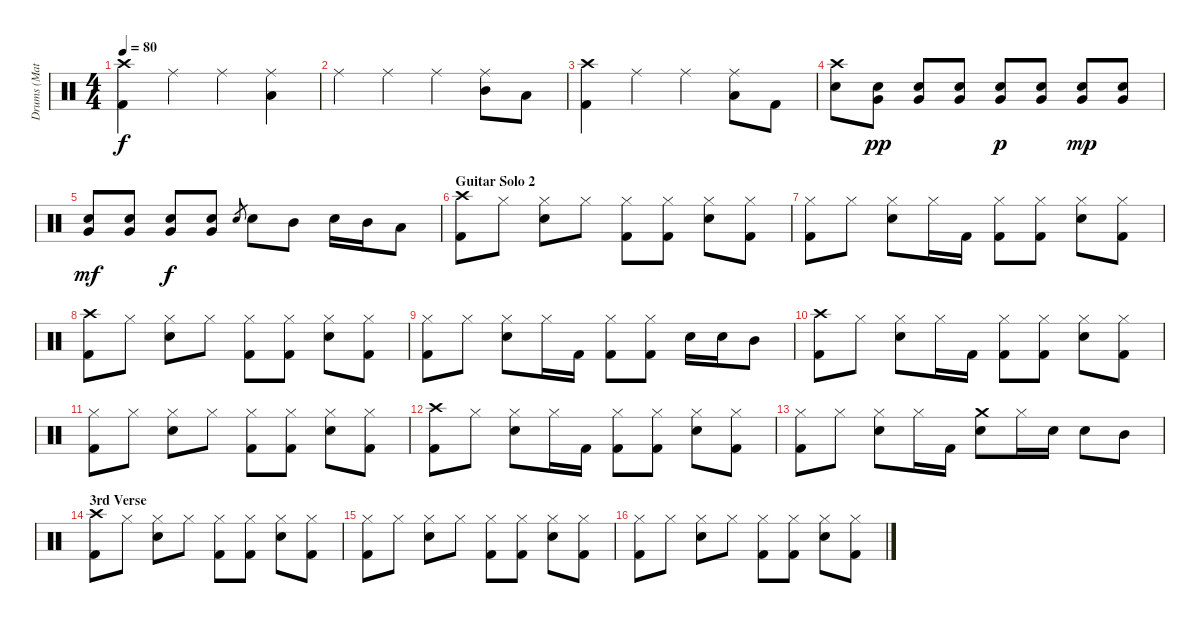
\track ("Drums (Matt)" "Drums (Mat") {instrument percussion}
\staff {score}
\articulation defaults
\ts (4 4)
\tempo 80
\clef neutral
\ks c
("Crash high (hit)" "Kick (hit) 2").4{dy f} "Ride (middle)".4 "Ride (middle)".4 ("Ride (middle)" "Low Tom (hit)").4 |
"Ride (middle)".4 "Ride (middle)".4 "Ride (middle)".4 ("Ride (middle)" "Mid Tom (hit)").8 "Low Tom (hit)".8 |
("Crash high (hit)" "Kick (hit) 2").4 "Ride (middle)".4 "Ride (middle)".4 ("Ride (middle)" "Low Tom (hit)").8 "Kick (hit) 2".8 |
("Crash high (hit)" "Snare (hit) 2").8 ("Very Low Tom (hit)" "Snare (hit) 2").8{dy pp} ("Very Low Tom (hit)" "Snare (hit) 2").8 ("Very Low Tom (hit)" "Snare (hit) 2").8 ("Very Low Tom (hit)" "Snare (hit) 2").8{dy p} ("Very Low Tom (hit)" "Snare (hit) 2").8 ("Very Low Tom (hit)" "Snare (hit) 2").8{dy mp} ("Very Low Tom (hit)" "Snare (hit) 2").8 |
("Very Low Tom (hit)" "Snare (hit) 2").8{dy mf} ("Very Low Tom (hit)" "Snare (hit) 2").8 ("Very Low Tom (hit)" "Snare (hit) 2").8{dy f} ("Very Low Tom (hit)" "Snare (hit) 2").8 "Snare (hit) 2".8{gr} "Snare (hit) 2".8 "Mid Tom (hit)".8 "Snare (hit) 2".16 "Mid Tom (hit)".16 "Low Tom (hit)".8 |
\section ("" "Guitar Solo 2")
("Crash high (hit)" "Kick (hit) 2").8 "Hi-Hat (closed)".8 ("Hi-Hat (closed)" "Snare (hit) 2").8 "Hi-Hat (closed)".8 ("Hi-Hat (closed)" "Kick (hit) 2").8 ("Hi-Hat (closed)" "Kick (hit) 2").8 ("Hi-Hat (closed)" "Snare (hit) 2").8 ("Hi-Hat (closed)" "Kick (hit) 2").8 |
("Hi-Hat (closed)" "Kick (hit) 2").8 "Hi-Hat (closed)".8 ("Hi-Hat (closed)" "Snare (hit) 2").8 "Hi-Hat (closed)".16 "Kick (hit) 2".16 ("Hi-Hat (closed)" "Kick (hit) 2").8 ("Hi-Hat (closed)" "Kick (hit) 2").8 ("Hi-Hat (closed)" "Snare (hit) 2").8 ("Hi-Hat (closed)" "Kick (hit) 2").8 |
("Crash high (hit)" "Kick (hit) 2").8 "Hi-Hat (closed)".8 ("Hi-Hat (closed)" "Snare (hit) 2").8 "Hi-Hat (closed)".8 ("Hi-Hat (closed)" "Kick (hit) 2").8 ("Hi-Hat (closed)" "Kick (hit) 2").8 ("Hi-Hat (closed)" "Snare (hit) 2").8 ("Hi-Hat (closed)" "Kick (hit) 2").8 |
("Hi-Hat (closed)" "Kick (hit) 2").8 "Hi-Hat (closed)".8 ("Hi-Hat (closed)" "Snare (hit) 2").8 "Hi-Hat (closed)".16 "Kick (hit) 2".16 ("Hi-Hat (closed)" "Kick (hit) 2").8 ("Hi-Hat (closed)" "Kick (hit) 2").8 "Snare (hit) 2".16 "Snare (hit) 2".16 "Mid Tom (hit)".8 |
("Crash high (hit)" "Kick (hit) 2").8 "Hi-Hat (closed)".8 ("Hi-Hat (closed)" "Snare (hit) 2").8 "Hi-Hat (closed)".16 "Kick (hit) 2".16 ("Hi-Hat (closed)" "Kick (hit) 2").8 ("Hi-Hat (closed)" "Kick (hit) 2").8 ("Hi-Hat (closed)" "Snare (hit) 2").8 ("Hi-Hat (closed)" "Kick (hit) 2").8 |
("Hi-Hat (closed)" "Kick (hit) 2").8 "Hi-Hat (closed)".8 ("Hi-Hat (closed)" "Snare (hit) 2").8 "Hi-Hat (closed)".8 ("Hi-Hat (closed)" "Kick (hit) 2").8 ("Hi-Hat (closed)" "Kick (hit) 2").8 ("Hi-Hat (closed)" "Snare (hit) 2").8 ("Hi-Hat (closed)" "Kick (hit) 2").8 |
("Crash high (hit)" "Kick (hit) 2").8 "Hi-Hat (closed)".8 ("Hi-Hat (closed)" "Snare (hit) 2").8 "Hi-Hat (closed)".16 "Kick (hit) 2".16 ("Hi-Hat (closed)" "Kick (hit) 2").8 ("Hi-Hat (closed)" "Kick (hit) 2").8 ("Hi-Hat (closed)" "Snare (hit) 2").8 ("Hi-Hat (closed)" "Kick (hit) 2").8 |
("Hi-Hat (closed)" "Kick (hit) 2").8 "Hi-Hat (closed)".8 ("Hi-Hat (closed)" "Snare (hit) 2").8 "Hi-Hat (closed)".16 "Kick (hit) 2".16 ("Crash medium (hit)" "Snare (hit) 2").8 "Hi-Hat (closed)".16 "Snare (hit) 2".16 "Snare (hit) 2".8 "Mid Tom (hit)".8 |
\section ("" "3rd Verse")
("Crash high (hit)" "Kick (hit) 2").8 "Hi-Hat (closed)".8 ("Hi-Hat (closed)" "Snare (hit) 2").8 "Hi-Hat (closed)".8 ("Hi-Hat (closed)" "Kick (hit) 2").8 ("Hi-Hat (closed)" "Kick (hit) 2").8 ("Hi-Hat (closed)" "Snare (hit) 2").8 ("Hi-Hat (closed)" "Kick (hit) 2").8 |
("Hi-Hat (closed)" "Kick (hit) 2").8 "Hi-Hat (closed)".8 ("Hi-Hat (closed)" "Snare (hit) 2").8 "Hi-Hat (closed)".8 ("Hi-Hat (closed)" "Kick (hit) 2").8 ("Hi-Hat (closed)" "Kick (hit) 2").8 ("Hi-Hat (closed)" "Snare (hit) 2").8 ("Hi-Hat (closed)" "Kick (hit) 2").8 |
("Hi-Hat (closed)" "Kick (hit) 2").8 "Hi-Hat (closed)".8 ("Hi-Hat (closed)" "Snare (hit) 2").8 "Hi-Hat (closed)".8 ("Hi-Hat (closed)" "Kick (hit) 2").8 ("Hi-Hat (closed)" "Kick (hit) 2").8 ("Hi-Hat (closed)" "Snare (hit) 2").8 ("Hi-Hat (closed)" "Kick (hit) 2").8
